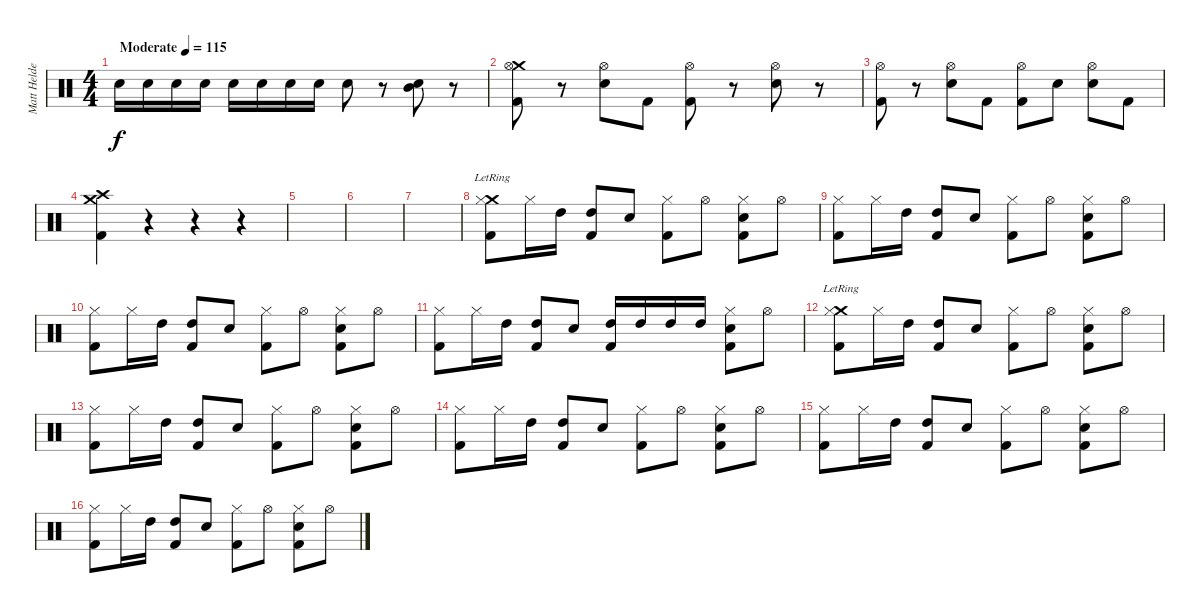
\track ("Matt Helders (Percussion)" "Matt Helde") {instrument percussion}
\staff {score}
\articulation defaults
\ts (4 4)
\tempo (115 "Moderate")
\clef neutral
\ks c "Snare (hit) 2".16{dy f} "Snare (hit) 2".16 "Snare (hit) 2".16 "Snare (hit) 2".16 "Snare (hit) 2".16 "Snare (hit) 2".16 "Snare (hit) 2".16 "Snare (hit) 2".16 "Snare (hit) 2".8
r.8 ("Snare (hit) 2" "Mid Tom (hit)").8 r.8 |
("Crash medium (hit)" "Hi-Hat (open)" "Kick (hit) 2").8 r.8 ("Hi-Hat (open)" "Snare (hit) 2").8 "Kick (hit) 2".8 ("Hi-Hat (open)" "Kick (hit) 2").8 r.8 ("Hi-Hat (open)" "Snare (hit) 2").8 r.8 |
("Hi-Hat (open)" "Kick (hit) 2").8 r.8 ("Hi-Hat (open)" "Snare (hit) 2").8 "Kick (hit) 2".8 ("Hi-Hat (open)" "Kick (hit) 2").8 "Snare (hit) 2".8 ("Hi-Hat (open)" "Snare (hit) 2").8 "Kick (hit) 2".8 |
("Crash medium (hit)" "Crash high (hit)" "Kick (hit) 2").4 r.4 r.4 r.4 |
|
|
|
("Crash medium (hit)"{lr} "Hi-Hat (closed)" "Kick (hit) 2").8 "Hi-Hat (closed)".16 "High Tom (hit)".16 ("High Tom (hit)" "Kick (hit) 2").8 "Snare (hit) 2".8 ("Hi-Hat (closed)" "Kick (hit) 2").8 "Hi-Hat (open)".8 ("Hi-Hat (closed)" "Snare (hit) 2" "Kick (hit) 2").8 "Hi-Hat (open)".8 |
("Hi-Hat (closed)" "Kick (hit) 2").8 "Hi-Hat (closed)".16 "High Tom (hit)".16 ("High Tom (hit)" "Kick (hit) 2").8 "Snare (hit) 2".8 ("Hi-Hat (closed)" "Kick (hit) 2").8 "Hi-Hat (open)".8 ("Hi-Hat (closed)" "Snare (hit) 2" "Kick (hit) 2").8 "Hi-Hat (open)".8 |
("Hi-Hat (closed)" "Kick (hit) 2").8 "Hi-Hat (closed)".16 "High Tom (hit)".16 ("High Tom (hit)" "Kick (hit) 2").8 "Snare (hit) 2".8 ("Hi-Hat (closed)" "Kick (hit) 2").8 "Hi-Hat (open)".8 ("Hi-Hat (closed)" "Snare (hit) 2" "Kick (hit) 2").8 "Hi-Hat (open)".8 |
("Hi-Hat (closed)" "Kick (hit) 2").8 "Hi-Hat (closed)".16 "High Tom (hit)".16 ("High Tom (hit)" "Kick (hit) 2").8 "Snare (hit) 2".8 ("High Tom (hit)" "Kick (hit) 2").16 "High Tom (hit)".16 "High Tom (hit)".16 "High Tom (hit)".16 ("Hi-Hat (closed)" "Snare (hit) 2" "Kick (hit) 2").8 "Hi-Hat (open)".8 |
("Crash medium (hit)"{lr} "Hi-Hat (closed)" "Kick (hit) 2").8 "Hi-Hat (closed)".16 "High Tom (hit)".16 ("High Tom (hit)" "Kick (hit) 2").8 "Snare (hit) 2".8 ("Hi-Hat (closed)" "Kick (hit) 2").8 "Hi-Hat (open)".8 ("Hi-Hat (closed)" "Snare (hit) 2" "Kick (hit) 2").8 "Hi-Hat (open)".8 |
("Hi-Hat (closed)" "Kick (hit) 2").8 "Hi-Hat (closed)".16 "High Tom (hit)".16 ("High Tom (hit)" "Kick (hit) 2").8 "Snare (hit) 2".8 ("Hi-Hat (closed)" "Kick (hit) 2").8 "Hi-Hat (open)".8 ("Hi-Hat (closed)" "Snare (hit) 2" "Kick (hit) 2").8 "Hi-Hat (open)".8 |
("Hi-Hat (closed)" "Kick (hit) 2").8 "Hi-Hat (closed)".16 "High Tom (hit)".16 ("High Tom (hit)" "Kick (hit) 2").8 "Snare (hit) 2".8 ("Hi-Hat (closed)" "Kick (hit) 2").8 "Hi-Hat (open)".8 ("Hi-Hat (closed)" "Snare (hit) 2" "Kick (hit) 2").8 "Hi-Hat (open)".8 |
("Hi-Hat (closed)" "Kick (hit) 2").8 "Hi-Hat (closed)".16 "High Tom (hit)".16 ("High Tom (hit)" "Kick (hit) 2").8 "Snare (hit) 2".8 ("Hi-Hat (closed)" "Kick (hit) 2").8 "Hi-Hat (open)".8 ("Hi-Hat (closed)" "Snare (hit) 2" "Kick (hit) 2").8 "Hi-Hat (open)".8 |
("Hi-Hat (closed)" "Kick (hit) 2").8 "Hi-Hat (closed)".16 "High Tom (hit)".16 ("High Tom (hit)" "Kick (hit) 2").8 "Snare (hit) 2".8 ("Hi-Hat (closed)" "Kick (hit) 2").8 "Hi-Hat (open)".8 ("Hi-Hat (closed)" "Snare (hit) 2" "Kick (hit) 2").8 "Hi-Hat (open)".8
